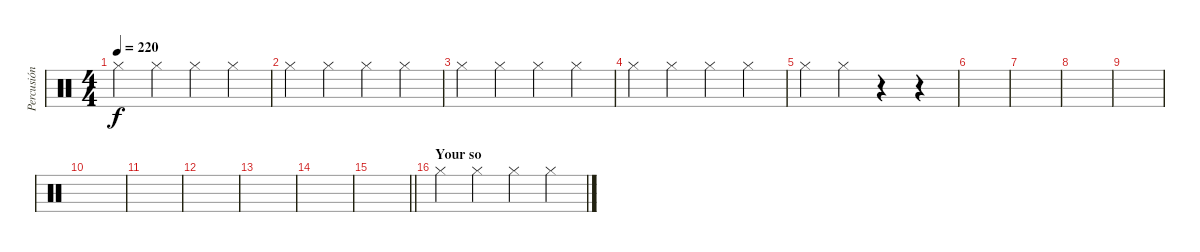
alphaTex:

\track ("Percusión" "Percusión") {instrument percussion}
\staff {score}
\articulation defaults
\ts (4 4)
\tempo 220
\clef neutral
\ks c "Hi-Hat (closed)".4{dy f} "Hi-Hat (closed)".4 "Hi-Hat (closed)".4 "Hi-Hat (closed)".4
|
"Hi-Hat (closed)".4 "Hi-Hat (closed)".4 "Hi-Hat (closed)".4 "Hi-Hat (closed)".4 |
"Hi-Hat (closed)".4 "Hi-Hat (closed)".4 "Hi-Hat (closed)".4 "Hi-Hat (closed)".4 |
"Hi-Hat (closed)".4 "Hi-Hat (closed)".4 "Hi-Hat (closed)".4 "Hi-Hat (closed)".4 |
"Hi-Hat (closed)".4 "Hi-Hat (closed)".4 r.4 r.4 |
|
|
|
|
|
|
|
|
|
\barLineRight lightlight
|
\section ("" "Your so")
"Hi-Hat (closed)".4 "Hi-Hat (closed)".4 "Hi-Hat (closed)".4 "Hi-Hat (closed)".4
